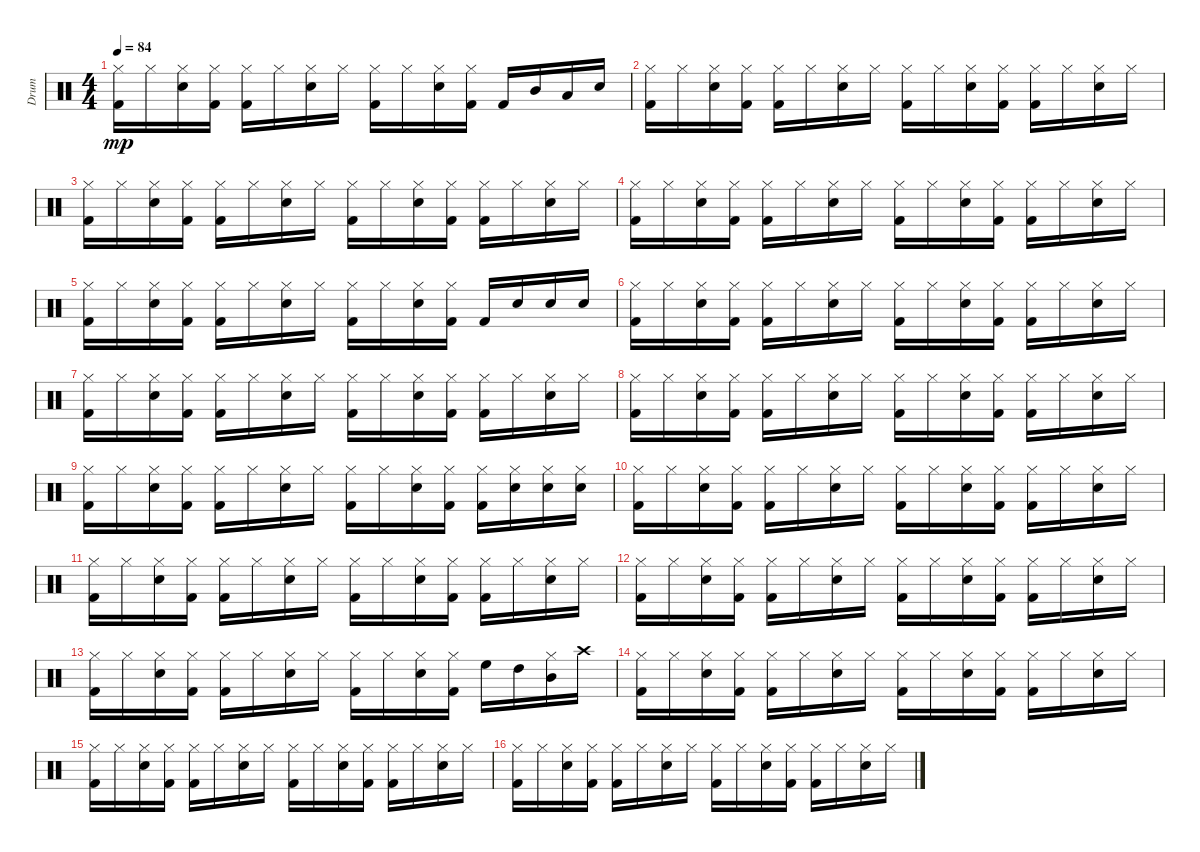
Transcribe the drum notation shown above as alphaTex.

\track ("Drum" "Drum") {instrument percussion}
\staff {score}
\articulation defaults
\ts (4 4)
\tempo 84
\clef neutral
\ks c
("Kick (hit) 2" "Hi-Hat (closed)").16{dy mp} "Hi-Hat (closed)".16 ("Snare (hit) 2" "Hi-Hat (closed)").16 ("Kick (hit) 2" "Hi-Hat (closed)").16 ("Kick (hit) 2" "Hi-Hat (closed)").16 "Hi-Hat (closed)".16 ("Snare (hit) 2" "Hi-Hat (closed)").16 "Hi-Hat (closed)".16 ("Kick (hit) 2" "Hi-Hat (closed)").16 "Hi-Hat (closed)".16 ("Snare (hit) 2" "Hi-Hat (closed)").16 ("Kick (hit) 2" "Hi-Hat (closed)").16 "Kick (hit) 2".16 "Mid Tom (hit)".16 "Low Tom (hit)".16 "Snare (hit) 2".16 |
("Kick (hit) 2" "Hi-Hat (closed)").16 "Hi-Hat (closed)".16 ("Snare (hit) 2" "Hi-Hat (closed)").16 ("Kick (hit) 2" "Hi-Hat (closed)").16 ("Kick (hit) 2" "Hi-Hat (closed)").16 "Hi-Hat (closed)".16 ("Snare (hit) 2" "Hi-Hat (closed)").16 "Hi-Hat (closed)".16 ("Kick (hit) 2" "Hi-Hat (closed)").16 "Hi-Hat (closed)".16 ("Snare (hit) 2" "Hi-Hat (closed)").16 ("Kick (hit) 2" "Hi-Hat (closed)").16 ("Kick (hit) 2" "Hi-Hat (closed)").16 "Hi-Hat (closed)".16 ("Snare (hit) 2" "Hi-Hat (closed)").16 "Hi-Hat (closed)".16 |
("Kick (hit) 2" "Hi-Hat (closed)").16 "Hi-Hat (closed)".16 ("Snare (hit) 2" "Hi-Hat (closed)").16 ("Kick (hit) 2" "Hi-Hat (closed)").16 ("Kick (hit) 2" "Hi-Hat (closed)").16 "Hi-Hat (closed)".16 ("Snare (hit) 2" "Hi-Hat (closed)").16 "Hi-Hat (closed)".16 ("Kick (hit) 2" "Hi-Hat (closed)").16 "Hi-Hat (closed)".16 ("Snare (hit) 2" "Hi-Hat (closed)").16 ("Kick (hit) 2" "Hi-Hat (closed)").16 ("Kick (hit) 2" "Hi-Hat (closed)").16 "Hi-Hat (closed)".16 ("Snare (hit) 2" "Hi-Hat (closed)").16 "Hi-Hat (closed)".16 |
("Kick (hit) 2" "Hi-Hat (closed)").16 "Hi-Hat (closed)".16 ("Snare (hit) 2" "Hi-Hat (closed)").16 ("Kick (hit) 2" "Hi-Hat (closed)").16 ("Kick (hit) 2" "Hi-Hat (closed)").16 "Hi-Hat (closed)".16 ("Snare (hit) 2" "Hi-Hat (closed)").16 "Hi-Hat (closed)".16 ("Kick (hit) 2" "Hi-Hat (closed)").16 "Hi-Hat (closed)".16 ("Snare (hit) 2" "Hi-Hat (closed)").16 ("Kick (hit) 2" "Hi-Hat (closed)").16 ("Kick (hit) 2" "Hi-Hat (closed)").16 "Hi-Hat (closed)".16 ("Snare (hit) 2" "Hi-Hat (closed)").16 "Hi-Hat (closed)".16 |
("Kick (hit) 2" "Hi-Hat (closed)").16 "Hi-Hat (closed)".16 ("Snare (hit) 2" "Hi-Hat (closed)").16 ("Kick (hit) 2" "Hi-Hat (closed)").16 ("Kick (hit) 2" "Hi-Hat (closed)").16 "Hi-Hat (closed)".16 ("Snare (hit) 2" "Hi-Hat (closed)").16 "Hi-Hat (closed)".16 ("Kick (hit) 2" "Hi-Hat (closed)").16 "Hi-Hat (closed)".16 ("Snare (hit) 2" "Hi-Hat (closed)").16 ("Kick (hit) 2" "Hi-Hat (closed)").16 "Kick (hit) 2".16 "Snare (hit) 2".16 "Electric Snare (hit)".16 "Electric Snare (hit)".16 |
("Kick (hit) 2" "Hi-Hat (closed)").16 "Hi-Hat (closed)".16 ("Snare (hit) 2" "Hi-Hat (closed)").16 ("Kick (hit) 2" "Hi-Hat (closed)").16 ("Kick (hit) 2" "Hi-Hat (closed)").16 "Hi-Hat (closed)".16 ("Snare (hit) 2" "Hi-Hat (closed)").16 "Hi-Hat (closed)".16 ("Kick (hit) 2" "Hi-Hat (closed)").16 "Hi-Hat (closed)".16 ("Snare (hit) 2" "Hi-Hat (closed)").16 ("Kick (hit) 2" "Hi-Hat (closed)").16 ("Kick (hit) 2" "Hi-Hat (closed)").16 "Hi-Hat (closed)".16 ("Snare (hit) 2" "Hi-Hat (closed)").16 "Hi-Hat (closed)".16 |
("Kick (hit) 2" "Hi-Hat (closed)").16 "Hi-Hat (closed)".16 ("Snare (hit) 2" "Hi-Hat (closed)").16 ("Kick (hit) 2" "Hi-Hat (closed)").16 ("Kick (hit) 2" "Hi-Hat (closed)").16 "Hi-Hat (closed)".16 ("Snare (hit) 2" "Hi-Hat (closed)").16 "Hi-Hat (closed)".16 ("Kick (hit) 2" "Hi-Hat (closed)").16 "Hi-Hat (closed)".16 ("Snare (hit) 2" "Hi-Hat (closed)").16 ("Kick (hit) 2" "Hi-Hat (closed)").16 ("Kick (hit) 2" "Hi-Hat (closed)").16 "Hi-Hat (closed)".16 ("Snare (hit) 2" "Hi-Hat (closed)").16 "Hi-Hat (closed)".16 |
("Kick (hit) 2" "Hi-Hat (closed)").16 "Hi-Hat (closed)".16 ("Snare (hit) 2" "Hi-Hat (closed)").16 ("Kick (hit) 2" "Hi-Hat (closed)").16 ("Kick (hit) 2" "Hi-Hat (closed)").16 "Hi-Hat (closed)".16 ("Snare (hit) 2" "Hi-Hat (closed)").16 "Hi-Hat (closed)".16 ("Kick (hit) 2" "Hi-Hat (closed)").16 "Hi-Hat (closed)".16 ("Snare (hit) 2" "Hi-Hat (closed)").16 ("Kick (hit) 2" "Hi-Hat (closed)").16 ("Kick (hit) 2" "Hi-Hat (closed)").16 "Hi-Hat (closed)".16 ("Snare (hit) 2" "Hi-Hat (closed)").16 "Hi-Hat (closed)".16 |
("Kick (hit) 2" "Hi-Hat (closed)").16 "Hi-Hat (closed)".16 ("Snare (hit) 2" "Hi-Hat (closed)").16 ("Kick (hit) 2" "Hi-Hat (closed)").16 ("Kick (hit) 2" "Hi-Hat (closed)").16 "Hi-Hat (closed)".16 ("Snare (hit) 2" "Hi-Hat (closed)").16 "Hi-Hat (closed)".16 ("Kick (hit) 2" "Hi-Hat (closed)").16 "Hi-Hat (closed)".16 ("Snare (hit) 2" "Hi-Hat (closed)").16 ("Kick (hit) 2" "Hi-Hat (closed)").16 ("Kick (hit) 2" "Hi-Hat (closed)").16 ("Electric Snare (hit)" "Hi-Hat (closed)").16 ("Snare (hit) 2" "Hi-Hat (closed)").16 ("Electric Snare (hit)" "Hi-Hat (closed)").16 |
("Kick (hit) 2" "Hi-Hat (closed)").16 "Hi-Hat (closed)".16 ("Snare (hit) 2" "Hi-Hat (closed)").16 ("Kick (hit) 2" "Hi-Hat (closed)").16 ("Kick (hit) 2" "Hi-Hat (closed)").16 "Hi-Hat (closed)".16 ("Snare (hit) 2" "Hi-Hat (closed)").16 "Hi-Hat (closed)".16 ("Kick (hit) 2" "Hi-Hat (closed)").16 "Hi-Hat (closed)".16 ("Snare (hit) 2" "Hi-Hat (closed)").16 ("Kick (hit) 2" "Hi-Hat (closed)").16 ("Kick (hit) 2" "Hi-Hat (closed)").16 "Hi-Hat (closed)".16 ("Snare (hit) 2" "Hi-Hat (closed)").16 "Hi-Hat (closed)".16 |
("Kick (hit) 2" "Hi-Hat (closed)").16 "Hi-Hat (closed)".16 ("Snare (hit) 2" "Hi-Hat (closed)").16 ("Kick (hit) 2" "Hi-Hat (closed)").16 ("Kick (hit) 2" "Hi-Hat (closed)").16 "Hi-Hat (closed)".16 ("Snare (hit) 2" "Hi-Hat (closed)").16 "Hi-Hat (closed)".16 ("Kick (hit) 2" "Hi-Hat (closed)").16 "Hi-Hat (closed)".16 ("Snare (hit) 2" "Hi-Hat (closed)").16 ("Kick (hit) 2" "Hi-Hat (closed)").16 ("Kick (hit) 2" "Hi-Hat (closed)").16 "Hi-Hat (closed)".16 ("Snare (hit) 2" "Hi-Hat (closed)").16 "Hi-Hat (closed)".16 |
("Kick (hit) 2" "Hi-Hat (closed)").16 "Hi-Hat (closed)".16 ("Snare (hit) 2" "Hi-Hat (closed)").16 ("Kick (hit) 2" "Hi-Hat (closed)").16 ("Kick (hit) 2" "Hi-Hat (closed)").16 "Hi-Hat (closed)".16 ("Snare (hit) 2" "Hi-Hat (closed)").16 "Hi-Hat (closed)".16 ("Kick (hit) 2" "Hi-Hat (closed)").16 "Hi-Hat (closed)".16 ("Snare (hit) 2" "Hi-Hat (closed)").16 ("Kick (hit) 2" "Hi-Hat (closed)").16 ("Kick (hit) 2" "Hi-Hat (closed)").16 "Hi-Hat (closed)".16 ("Snare (hit) 2" "Hi-Hat (closed)").16 "Hi-Hat (closed)".16 |
("Kick (hit) 2" "Hi-Hat (closed)").16 "Hi-Hat (closed)".16 ("Snare (hit) 2" "Hi-Hat (closed)").16 ("Kick (hit) 2" "Hi-Hat (closed)").16 ("Kick (hit) 2" "Hi-Hat (closed)").16 "Hi-Hat (closed)".16 ("Snare (hit) 2" "Hi-Hat (closed)").16 "Hi-Hat (closed)".16 ("Kick (hit) 2" "Hi-Hat (closed)").16 "Hi-Hat (closed)".16 ("Snare (hit) 2" "Hi-Hat (closed)").16 ("Kick (hit) 2" "Hi-Hat (closed)").16 "High Floor Tom (hit)".16 "High Tom (hit)".16 ("Hi-Hat (closed)" "Mid Tom (hit)").16 "Crash high (hit)".16 |
("Kick (hit) 2" "Hi-Hat (closed)").16 "Hi-Hat (closed)".16 ("Snare (hit) 2" "Hi-Hat (closed)").16 ("Kick (hit) 2" "Hi-Hat (closed)").16 ("Kick (hit) 2" "Hi-Hat (closed)").16 "Hi-Hat (closed)".16 ("Snare (hit) 2" "Hi-Hat (closed)").16 "Hi-Hat (closed)".16 ("Kick (hit) 2" "Hi-Hat (closed)").16 "Hi-Hat (closed)".16 ("Snare (hit) 2" "Hi-Hat (closed)").16 ("Kick (hit) 2" "Hi-Hat (closed)").16 ("Kick (hit) 2" "Hi-Hat (closed)").16 "Hi-Hat (closed)".16 ("Snare (hit) 2" "Hi-Hat (closed)").16 "Hi-Hat (closed)".16 |
("Kick (hit) 2" "Hi-Hat (closed)").16 "Hi-Hat (closed)".16 ("Snare (hit) 2" "Hi-Hat (closed)").16 ("Kick (hit) 2" "Hi-Hat (closed)").16 ("Kick (hit) 2" "Hi-Hat (closed)").16 "Hi-Hat (closed)".16 ("Snare (hit) 2" "Hi-Hat (closed)").16 "Hi-Hat (closed)".16 ("Kick (hit) 2" "Hi-Hat (closed)").16 "Hi-Hat (closed)".16 ("Snare (hit) 2" "Hi-Hat (closed)").16 ("Kick (hit) 2" "Hi-Hat (closed)").16 ("Kick (hit) 2" "Hi-Hat (closed)").16 "Hi-Hat (closed)".16 ("Snare (hit) 2" "Hi-Hat (closed)").16 "Hi-Hat (closed)".16 |
("Kick (hit) 2" "Hi-Hat (closed)").16 "Hi-Hat (closed)".16 ("Snare (hit) 2" "Hi-Hat (closed)").16 ("Kick (hit) 2" "Hi-Hat (closed)").16 ("Kick (hit) 2" "Hi-Hat (closed)").16 "Hi-Hat (closed)".16 ("Snare (hit) 2" "Hi-Hat (closed)").16 "Hi-Hat (closed)".16 ("Kick (hit) 2" "Hi-Hat (closed)").16 "Hi-Hat (closed)".16 ("Snare (hit) 2" "Hi-Hat (closed)").16 ("Kick (hit) 2" "Hi-Hat (closed)").16 ("Kick (hit) 2" "Hi-Hat (closed)").16 "Hi-Hat (closed)".16 ("Snare (hit) 2" "Hi-Hat (closed)").16 "Hi-Hat (closed)".16
